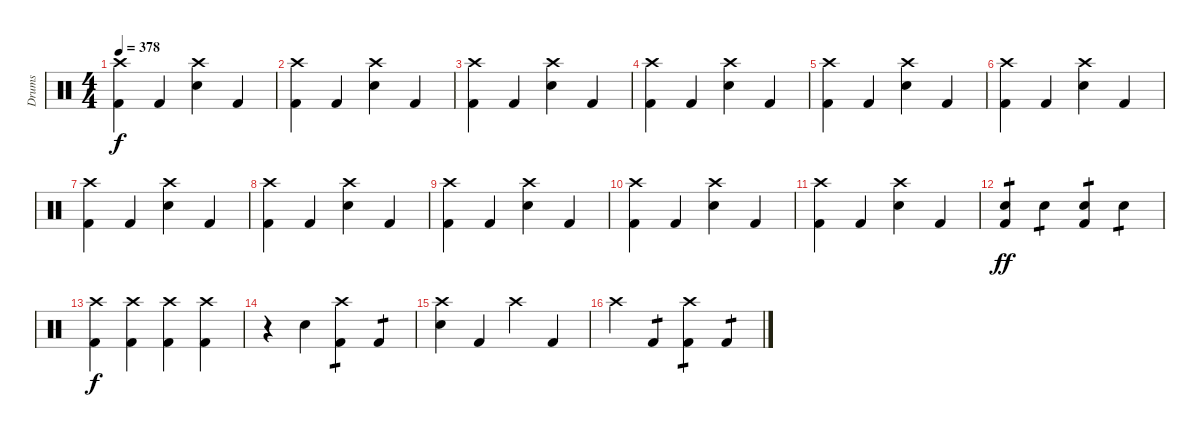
\track ("Drums" "Drums") {instrument percussion}
\staff {score}
\articulation defaults
\ts (4 4)
\tempo 378
\clef neutral
\ks c
("Crash high (hit)" "Kick (hit) 2").4{dy f} "Kick (hit) 2".4 ("Crash high (hit)" "Electric Snare (hit)").4 "Kick (hit) 2".4 |
("Crash high (hit)" "Kick (hit) 2").4 "Kick (hit) 2".4 ("Crash high (hit)" "Electric Snare (hit)").4 "Kick (hit) 2".4 |
("Crash high (hit)" "Kick (hit) 2").4 "Kick (hit) 2".4 ("Crash high (hit)" "Electric Snare (hit)").4 "Kick (hit) 2".4 |
("Crash high (hit)" "Kick (hit) 2").4 "Kick (hit) 2".4 ("Crash high (hit)" "Electric Snare (hit)").4 "Kick (hit) 2".4 |
("Crash high (hit)" "Kick (hit) 2").4 "Kick (hit) 2".4 ("Crash high (hit)" "Electric Snare (hit)").4 "Kick (hit) 2".4 |
("Crash high (hit)" "Kick (hit) 2").4 "Kick (hit) 2".4 ("Crash high (hit)" "Electric Snare (hit)").4 "Kick (hit) 2".4 |
("Crash high (hit)" "Kick (hit) 2").4 "Kick (hit) 2".4 ("Crash high (hit)" "Electric Snare (hit)").4 "Kick (hit) 2".4 |
("Crash high (hit)" "Kick (hit) 2").4 "Kick (hit) 2".4 ("Crash high (hit)" "Electric Snare (hit)").4 "Kick (hit) 2".4 |
("Crash high (hit)" "Kick (hit) 2").4 "Kick (hit) 2".4 ("Crash high (hit)" "Electric Snare (hit)").4 "Kick (hit) 2".4 |
("Crash high (hit)" "Kick (hit) 2").4 "Kick (hit) 2".4 ("Crash high (hit)" "Electric Snare (hit)").4 "Kick (hit) 2".4 |
("Crash high (hit)" "Kick (hit) 2").4 "Kick (hit) 2".4 ("Crash high (hit)" "Electric Snare (hit)").4 "Kick (hit) 2".4 |
("Electric Snare (hit)" "Kick (hit) 2").4{tp 1 dy ff} "Electric Snare (hit)".4{tp 1} ("Electric Snare (hit)" "Kick (hit) 2").4{tp 1} "Electric Snare (hit)".4{tp 1} |
("Crash high (hit)" "Kick (hit) 2").4{dy f} ("Crash high (hit)" "Kick (hit) 2").4 ("Crash high (hit)" "Kick (hit) 2").4 ("Crash high (hit)" "Kick (hit) 2").4 |
r.4 "Electric Snare (hit)".4 ("Crash high (hit)" "Kick (hit) 2").4{tp 1} "Kick (hit) 2".4{tp 1} |
("Crash high (hit)" "Electric Snare (hit)").4 "Kick (hit) 2".4 "Crash high (hit)".4 "Kick (hit) 2".4 |
"Crash high (hit)".4 "Kick (hit) 2".4{tp 1} ("Crash high (hit)" "Kick (hit) 2").4{tp 1} "Kick (hit) 2".4{tp 1}
